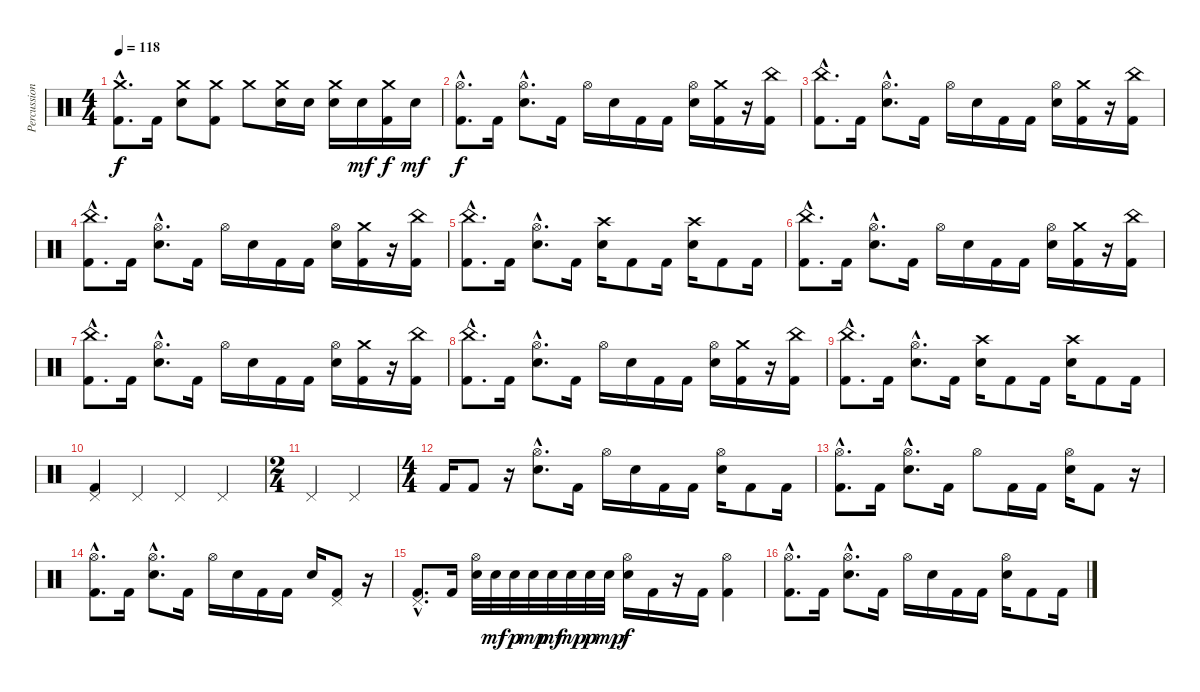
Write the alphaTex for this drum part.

\track ("Percussions" "Percussion") {instrument percussion}
\staff {score}
\articulation defaults
\ts (4 4)
\tempo 118
\clef neutral
\ks c
("Crash medium (hit)"{hac} "Kick (hit) 2"{hac}).8{d dy f} "Kick (hit) 2".16 ("Crash medium (hit)" "Electric Snare (hit)").8 ("Crash medium (hit)" "Kick (hit) 2").8 "Crash medium (hit)".8 ("Crash medium (hit)" "Electric Snare (hit)").16 "Electric Snare (hit)".16 ("Crash medium (hit)" "Electric Snare (hit)").16 "Electric Snare (hit)".16{dy mf} ("Crash medium (hit)" "Kick (hit) 2").16{dy f} "Electric Snare (hit)".16{dy mf} |
("Hi-Hat (open)"{hac} "Kick (hit) 2"{hac}).8{d dy f} "Kick (hit) 2".16 ("Hi-Hat (open)"{hac} "Electric Snare (hit)"{hac}).8{d} "Kick (hit) 2".16 "Hi-Hat (open)".16 "Electric Snare (hit)".16 "Kick (hit) 2".16 "Kick (hit) 2".16 ("Hi-Hat (open)" "Electric Snare (hit)").16 ("Crash medium (hit)" "Kick (hit) 2").16 r.16 ("China (hit)" "Kick (hit) 2").16 |
("China (hit)"{hac} "Kick (hit) 2"{hac}).8{d} "Kick (hit) 2".16 ("Hi-Hat (open)"{hac} "Electric Snare (hit)"{hac}).8{d} "Kick (hit) 2".16 "Hi-Hat (open)".16 "Electric Snare (hit)".16 "Kick (hit) 2".16 "Kick (hit) 2".16 ("Hi-Hat (open)" "Electric Snare (hit)").16 ("Crash medium (hit)" "Kick (hit) 2").16 r.16 ("China (hit)" "Kick (hit) 2").16 |
("China (hit)"{hac} "Kick (hit) 2"{hac}).8{d} "Kick (hit) 2".16 ("Hi-Hat (open)"{hac} "Electric Snare (hit)"{hac}).8{d} "Kick (hit) 2".16 "Hi-Hat (open)".16 "Electric Snare (hit)".16 "Kick (hit) 2".16 "Kick (hit) 2".16 ("Hi-Hat (open)" "Electric Snare (hit)").16 ("Crash medium (hit)" "Kick (hit) 2").16 r.16 ("China (hit)" "Kick (hit) 2").16 |
("China (hit)"{hac} "Kick (hit) 2"{hac}).8{d} "Kick (hit) 2".16 ("Hi-Hat (open)"{hac} "Electric Snare (hit)"{hac}).8{d} "Kick (hit) 2".16 ("Crash high (hit)" "Electric Snare (hit)").16 "Kick (hit) 2".8 "Kick (hit) 2".16 ("Crash high (hit)" "Electric Snare (hit)").16 "Kick (hit) 2".8 "Kick (hit) 2".16 |
("China (hit)"{hac} "Kick (hit) 2"{hac}).8{d} "Kick (hit) 2".16 ("Hi-Hat (open)"{hac} "Electric Snare (hit)"{hac}).8{d} "Kick (hit) 2".16 "Hi-Hat (open)".16 "Electric Snare (hit)".16 "Kick (hit) 2".16 "Kick (hit) 2".16 ("Hi-Hat (open)" "Electric Snare (hit)").16 ("Crash medium (hit)" "Kick (hit) 2").16 r.16 ("China (hit)" "Kick (hit) 2").16 |
("China (hit)"{hac} "Kick (hit) 2"{hac}).8{d} "Kick (hit) 2".16 ("Hi-Hat (open)"{hac} "Electric Snare (hit)"{hac}).8{d} "Kick (hit) 2".16 "Hi-Hat (open)".16 "Electric Snare (hit)".16 "Kick (hit) 2".16 "Kick (hit) 2".16 ("Hi-Hat (open)" "Electric Snare (hit)").16 ("Crash medium (hit)" "Kick (hit) 2").16 r.16 ("China (hit)" "Kick (hit) 2").16 |
("China (hit)"{hac} "Kick (hit) 2"{hac}).8{d} "Kick (hit) 2".16 ("Hi-Hat (open)"{hac} "Electric Snare (hit)"{hac}).8{d} "Kick (hit) 2".16 "Hi-Hat (open)".16 "Electric Snare (hit)".16 "Kick (hit) 2".16 "Kick (hit) 2".16 ("Hi-Hat (open)" "Electric Snare (hit)").16 ("Crash medium (hit)" "Kick (hit) 2").16 r.16 ("China (hit)" "Kick (hit) 2").16 |
("China (hit)"{hac} "Kick (hit) 2"{hac}).8{d} "Kick (hit) 2".16 ("Hi-Hat (open)"{hac} "Electric Snare (hit)"{hac}).8{d} "Kick (hit) 2".16 ("Crash high (hit)" "Electric Snare (hit)").16 "Kick (hit) 2".8 "Kick (hit) 2".16 ("Crash high (hit)" "Electric Snare (hit)").16 "Kick (hit) 2".8 "Kick (hit) 2".16 |
("Pedal Hi-Hat (hit)" "Kick (hit) 2").4 "Pedal Hi-Hat (hit)".4 "Pedal Hi-Hat (hit)".4 "Pedal Hi-Hat (hit)".4 |
\ts (2 4)
"Pedal Hi-Hat (hit)".4 "Pedal Hi-Hat (hit)".4 |
\ts (4 4)
"Kick (hit) 2".16 "Kick (hit) 2".8 r.16 ("Hi-Hat (open)"{hac} "Electric Snare (hit)"{hac}).8{d} "Kick (hit) 2".16 "Hi-Hat (open)".16 "Electric Snare (hit)".16 "Kick (hit) 2".16 "Kick (hit) 2".16 ("Hi-Hat (open)" "Electric Snare (hit)").16 "Kick (hit) 2".8 "Kick (hit) 2".16 |
("Hi-Hat (open)"{hac} "Kick (hit) 2"{hac}).8{d} "Kick (hit) 2".16 ("Hi-Hat (open)"{hac} "Electric Snare (hit)"{hac}).8{d} "Kick (hit) 2".16 "Hi-Hat (open)".8 "Kick (hit) 2".16 "Kick (hit) 2".16 ("Hi-Hat (open)" "Electric Snare (hit)").16 "Kick (hit) 2".8 r.16 |
("Hi-Hat (open)"{hac} "Kick (hit) 2"{hac}).8{d} "Kick (hit) 2".16 ("Hi-Hat (open)"{hac} "Electric Snare (hit)"{hac}).8{d} "Kick (hit) 2".16 "Hi-Hat (open)".16 "Electric Snare (hit)".16 "Kick (hit) 2".16 "Kick (hit) 2".16 "Electric Snare (hit)".16 ("Pedal Hi-Hat (hit)" "Kick (hit) 2").8 r.16 |
("Pedal Hi-Hat (hit)"{hac} "Kick (hit) 2"{hac}).8{d} "Kick (hit) 2".16 ("Hi-Hat (open)" "Electric Snare (hit)").32 "Electric Snare (hit)".32{dy mf} "Electric Snare (hit)".32{dy p} "Electric Snare (hit)".32{dy mp} "Electric Snare (hit)".32{dy mf} "Electric Snare (hit)".32{dy mp} "Electric Snare (hit)".32{dy p} "Electric Snare (hit)".32{dy mp} ("Hi-Hat (open)" "Electric Snare (hit)").16{dy f} "Kick (hit) 2".16 r.16 "Kick (hit) 2".16 ("Hi-Hat (open)" "Kick (hit) 2").4 |
("Hi-Hat (open)"{hac} "Kick (hit) 2"{hac}).8{d} "Kick (hit) 2".16 ("Hi-Hat (open)"{hac} "Electric Snare (hit)"{hac}).8{d} "Kick (hit) 2".16 "Hi-Hat (open)".16 "Electric Snare (hit)".16 "Kick (hit) 2".16 "Kick (hit) 2".16 ("Hi-Hat (open)" "Electric Snare (hit)").16 "Kick (hit) 2".8 "Kick (hit) 2".16
